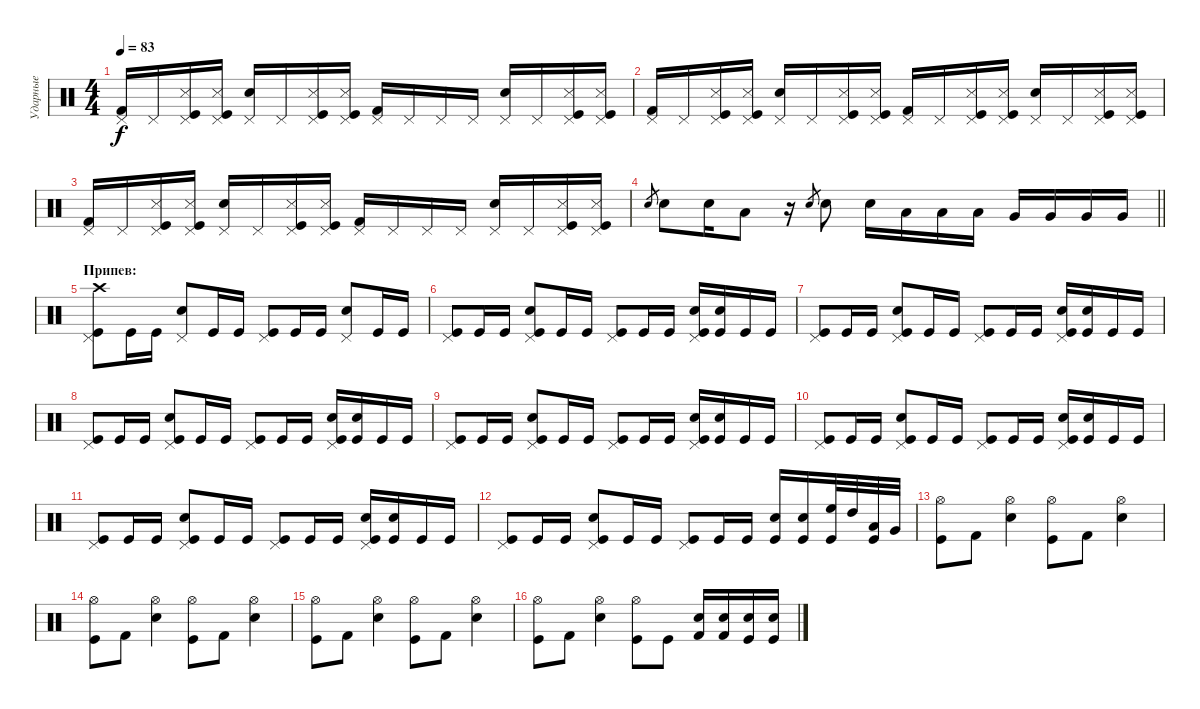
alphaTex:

\track ("Ударные" "Ударные") {instrument percussion}
\staff {score}
\articulation defaults
\ts (4 4)
\tempo 83
\clef neutral
\ks c
("Kick (hit) 2" "Pedal Hi-Hat (hit)").16{dy f} "Pedal Hi-Hat (hit)".16 ("Kick (hit)" "Snare (side stick) 3" "Pedal Hi-Hat (hit)").16 ("Kick (hit)" "Snare (side stick) 3" "Pedal Hi-Hat (hit)").16 ("Electric Snare (hit)" "Pedal Hi-Hat (hit)").16 "Pedal Hi-Hat (hit)".16 ("Kick (hit)" "Snare (side stick) 3" "Pedal Hi-Hat (hit)").16 ("Kick (hit)" "Snare (side stick) 3" "Pedal Hi-Hat (hit)").16 ("Kick (hit) 2" "Pedal Hi-Hat (hit)").16 "Pedal Hi-Hat (hit)".16 "Pedal Hi-Hat (hit)".16 "Pedal Hi-Hat (hit)".16 ("Electric Snare (hit)" "Pedal Hi-Hat (hit)").16 "Pedal Hi-Hat (hit)".16 ("Kick (hit)" "Snare (side stick) 3" "Pedal Hi-Hat (hit)").16 ("Kick (hit)" "Snare (side stick) 3" "Pedal Hi-Hat (hit)").16 |
("Kick (hit) 2" "Pedal Hi-Hat (hit)").16 "Pedal Hi-Hat (hit)".16 ("Kick (hit)" "Snare (side stick) 3" "Pedal Hi-Hat (hit)").16 ("Kick (hit)" "Snare (side stick) 3" "Pedal Hi-Hat (hit)").16 ("Electric Snare (hit)" "Pedal Hi-Hat (hit)").16 "Pedal Hi-Hat (hit)".16 ("Kick (hit)" "Snare (side stick) 3" "Pedal Hi-Hat (hit)").16 ("Kick (hit)" "Snare (side stick) 3" "Pedal Hi-Hat (hit)").16 ("Kick (hit) 2" "Pedal Hi-Hat (hit)").16 "Pedal Hi-Hat (hit)".16 ("Kick (hit)" "Snare (side stick) 3" "Pedal Hi-Hat (hit)").16 ("Kick (hit)" "Snare (side stick) 3" "Pedal Hi-Hat (hit)").16 ("Electric Snare (hit)" "Pedal Hi-Hat (hit)").16 "Pedal Hi-Hat (hit)".16 ("Kick (hit)" "Snare (side stick) 3" "Pedal Hi-Hat (hit)").16 ("Kick (hit)" "Snare (side stick) 3" "Pedal Hi-Hat (hit)").16 |
("Kick (hit) 2" "Pedal Hi-Hat (hit)").16 "Pedal Hi-Hat (hit)".16 ("Kick (hit)" "Snare (side stick) 3" "Pedal Hi-Hat (hit)").16 ("Kick (hit)" "Snare (side stick) 3" "Pedal Hi-Hat (hit)").16 ("Electric Snare (hit)" "Pedal Hi-Hat (hit)").16 "Pedal Hi-Hat (hit)".16 ("Kick (hit)" "Snare (side stick) 3" "Pedal Hi-Hat (hit)").16 ("Kick (hit)" "Snare (side stick) 3" "Pedal Hi-Hat (hit)").16 ("Kick (hit) 2" "Pedal Hi-Hat (hit)").16 "Pedal Hi-Hat (hit)".16 "Pedal Hi-Hat (hit)".16 "Pedal Hi-Hat (hit)".16 ("Electric Snare (hit)" "Pedal Hi-Hat (hit)").16 "Pedal Hi-Hat (hit)".16 ("Kick (hit)" "Snare (side stick) 3" "Pedal Hi-Hat (hit)").16 ("Kick (hit)" "Snare (side stick) 3" "Pedal Hi-Hat (hit)").16 |
\barLineRight lightlight "Electric Snare (hit)".8{gr} "Electric Snare (hit)".8 "Electric Snare (hit)".16 "Low Tom (hit)".8
r.16 "Electric Snare (hit)".8{gr} "Electric Snare (hit)".8 "Electric Snare (hit)".16 "Low Tom (hit)".16 "Low Tom (hit)".16 "Low Tom (hit)".16 "Very Low Tom (hit)".16 "Very Low Tom (hit)".16 "Very Low Tom (hit)".16 "Very Low Tom (hit)".16 |
\section ("" "Припев:")
("Kick (hit)" "Crash high (hit)" "Pedal Hi-Hat (hit)").8 "Kick (hit)".16 "Kick (hit)".16 ("Electric Snare (hit)" "Pedal Hi-Hat (hit)").8 "Kick (hit)".16 "Kick (hit)".16 ("Kick (hit)" "Pedal Hi-Hat (hit)").8 "Kick (hit)".16 "Kick (hit)".16 ("Electric Snare (hit)" "Pedal Hi-Hat (hit)").8 "Kick (hit)".16 "Kick (hit)".16 |
("Pedal Hi-Hat (hit)" "Kick (hit)").8 "Kick (hit)".16 "Kick (hit)".16 ("Pedal Hi-Hat (hit)" "Kick (hit)" "Electric Snare (hit)").8 "Kick (hit)".16 "Kick (hit)".16 ("Pedal Hi-Hat (hit)" "Kick (hit)").8 "Kick (hit)".16 "Kick (hit)".16 ("Pedal Hi-Hat (hit)" "Kick (hit)" "Electric Snare (hit)").16 ("Kick (hit)" "Electric Snare (hit)").16 "Kick (hit)".16 "Kick (hit)".16 |
("Pedal Hi-Hat (hit)" "Kick (hit)").8 "Kick (hit)".16 "Kick (hit)".16 ("Pedal Hi-Hat (hit)" "Kick (hit)" "Electric Snare (hit)").8 "Kick (hit)".16 "Kick (hit)".16 ("Pedal Hi-Hat (hit)" "Kick (hit)").8 "Kick (hit)".16 "Kick (hit)".16 ("Pedal Hi-Hat (hit)" "Kick (hit)" "Electric Snare (hit)").16 ("Kick (hit)" "Electric Snare (hit)").16 "Kick (hit)".16 "Kick (hit)".16 |
("Pedal Hi-Hat (hit)" "Kick (hit)").8 "Kick (hit)".16 "Kick (hit)".16 ("Pedal Hi-Hat (hit)" "Kick (hit)" "Electric Snare (hit)").8 "Kick (hit)".16 "Kick (hit)".16 ("Pedal Hi-Hat (hit)" "Kick (hit)").8 "Kick (hit)".16 "Kick (hit)".16 ("Pedal Hi-Hat (hit)" "Kick (hit)" "Electric Snare (hit)").16 ("Kick (hit)" "Electric Snare (hit)").16 "Kick (hit)".16 "Kick (hit)".16 |
("Pedal Hi-Hat (hit)" "Kick (hit)").8 "Kick (hit)".16 "Kick (hit)".16 ("Pedal Hi-Hat (hit)" "Kick (hit)" "Electric Snare (hit)").8 "Kick (hit)".16 "Kick (hit)".16 ("Pedal Hi-Hat (hit)" "Kick (hit)").8 "Kick (hit)".16 "Kick (hit)".16 ("Pedal Hi-Hat (hit)" "Kick (hit)" "Electric Snare (hit)").16 ("Kick (hit)" "Electric Snare (hit)").16 "Kick (hit)".16 "Kick (hit)".16 |
("Pedal Hi-Hat (hit)" "Kick (hit)").8 "Kick (hit)".16 "Kick (hit)".16 ("Pedal Hi-Hat (hit)" "Kick (hit)" "Electric Snare (hit)").8 "Kick (hit)".16 "Kick (hit)".16 ("Pedal Hi-Hat (hit)" "Kick (hit)").8 "Kick (hit)".16 "Kick (hit)".16 ("Pedal Hi-Hat (hit)" "Kick (hit)" "Electric Snare (hit)").16 ("Kick (hit)" "Electric Snare (hit)").16 "Kick (hit)".16 "Kick (hit)".16 |
("Pedal Hi-Hat (hit)" "Kick (hit)").8 "Kick (hit)".16 "Kick (hit)".16 ("Pedal Hi-Hat (hit)" "Kick (hit)" "Electric Snare (hit)").8 "Kick (hit)".16 "Kick (hit)".16 ("Pedal Hi-Hat (hit)" "Kick (hit)").8 "Kick (hit)".16 "Kick (hit)".16 ("Pedal Hi-Hat (hit)" "Kick (hit)" "Electric Snare (hit)").16 ("Kick (hit)" "Electric Snare (hit)").16 "Kick (hit)".16 "Kick (hit)".16 |
("Pedal Hi-Hat (hit)" "Kick (hit)").8 "Kick (hit)".16 "Kick (hit)".16 ("Pedal Hi-Hat (hit)" "Kick (hit)" "Electric Snare (hit)").8 "Kick (hit)".16 "Kick (hit)".16 ("Pedal Hi-Hat (hit)" "Kick (hit)").8 "Kick (hit)".16 "Kick (hit)".16 ("Kick (hit)" "Electric Snare (hit)").16 ("Kick (hit)" "Electric Snare (hit)").16 ("Kick (hit)" "High Floor Tom (hit)").32 "High Tom (hit)".32 ("Kick (hit)" "Low Tom (hit)").32 "Very Low Tom (hit)".32 |
("Hi-Hat (open)" "Kick (hit)").8 "Kick (hit) 2".8 ("Hi-Hat (open)" "Electric Snare (hit)").4 ("Hi-Hat (open)" "Kick (hit)").8 "Kick (hit) 2".8 ("Hi-Hat (open)" "Electric Snare (hit)").4 |
("Hi-Hat (open)" "Kick (hit)").8 "Kick (hit) 2".8 ("Hi-Hat (open)" "Electric Snare (hit)").4 ("Hi-Hat (open)" "Kick (hit)").8 "Kick (hit) 2".8 ("Hi-Hat (open)" "Electric Snare (hit)").4 |
("Hi-Hat (open)" "Kick (hit)").8 "Kick (hit) 2".8 ("Hi-Hat (open)" "Electric Snare (hit)").4 ("Hi-Hat (open)" "Kick (hit)").8 "Kick (hit) 2".8 ("Hi-Hat (open)" "Electric Snare (hit)").4 |
("Hi-Hat (open)" "Kick (hit)").8 "Kick (hit) 2".8 ("Hi-Hat (open)" "Electric Snare (hit)").4 ("Hi-Hat (open)" "Kick (hit)").8 "Kick (hit)".8 ("Kick (hit) 2" "Electric Snare (hit)").16 ("Kick (hit) 2" "Electric Snare (hit)").16 ("Electric Snare (hit)" "Kick (hit)").16 ("Electric Snare (hit)" "Kick (hit)").16
